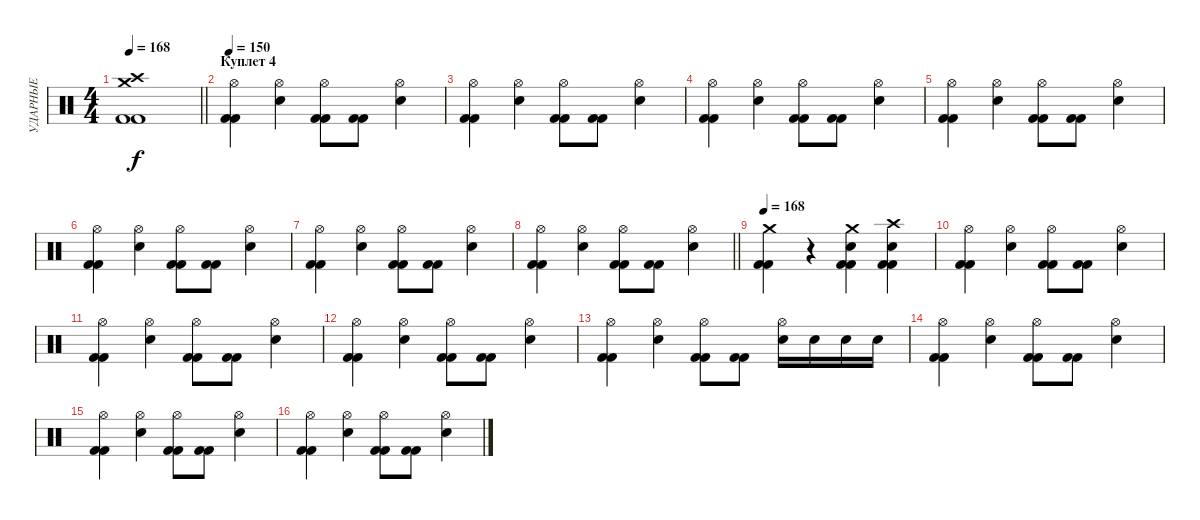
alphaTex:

\track ("УДАРНЫЕ" "УДАРНЫЕ") {instrument percussion}
\staff {score}
\articulation defaults
\ts (4 4)
\tempo 168
\clef neutral
\barLineRight lightlight
\ks c
("Crash medium (hit)" "Crash high (hit)" "Kick (hit) 2" "Kick (hit) 2").1{dy f} |
\section ("" "Куплет 4")
\tempo 150
("Hi-Hat (open)" "Kick (hit) 2" "Kick (hit) 2").4 ("Hi-Hat (open)" "Snare (hit) 2").4 ("Hi-Hat (open)" "Kick (hit) 2" "Kick (hit) 2").8 ("Kick (hit) 2" "Kick (hit) 2").8 ("Hi-Hat (open)" "Snare (hit) 2").4 |
("Hi-Hat (open)" "Kick (hit) 2" "Kick (hit) 2").4 ("Hi-Hat (open)" "Snare (hit) 2").4 ("Hi-Hat (open)" "Kick (hit) 2" "Kick (hit) 2").8 ("Kick (hit) 2" "Kick (hit) 2").8 ("Hi-Hat (open)" "Snare (hit) 2").4 |
("Hi-Hat (open)" "Kick (hit) 2" "Kick (hit) 2").4 ("Hi-Hat (open)" "Snare (hit) 2").4 ("Hi-Hat (open)" "Kick (hit) 2" "Kick (hit) 2").8 ("Kick (hit) 2" "Kick (hit) 2").8 ("Hi-Hat (open)" "Snare (hit) 2").4 |
("Hi-Hat (open)" "Kick (hit) 2" "Kick (hit) 2").4 ("Hi-Hat (open)" "Snare (hit) 2").4 ("Hi-Hat (open)" "Kick (hit) 2" "Kick (hit) 2").8 ("Kick (hit) 2" "Kick (hit) 2").8 ("Hi-Hat (open)" "Snare (hit) 2").4 |
("Hi-Hat (open)" "Kick (hit) 2" "Kick (hit) 2").4 ("Hi-Hat (open)" "Snare (hit) 2").4 ("Hi-Hat (open)" "Kick (hit) 2" "Kick (hit) 2").8 ("Kick (hit) 2" "Kick (hit) 2").8 ("Hi-Hat (open)" "Snare (hit) 2").4 |
("Hi-Hat (open)" "Kick (hit) 2" "Kick (hit) 2").4 ("Hi-Hat (open)" "Snare (hit) 2").4 ("Hi-Hat (open)" "Kick (hit) 2" "Kick (hit) 2").8 ("Kick (hit) 2" "Kick (hit) 2").8 ("Hi-Hat (open)" "Snare (hit) 2").4 |
\barLineRight lightlight
("Hi-Hat (open)" "Kick (hit) 2" "Kick (hit) 2").4 ("Hi-Hat (open)" "Snare (hit) 2").4 ("Hi-Hat (open)" "Kick (hit) 2" "Kick (hit) 2").8 ("Kick (hit) 2" "Kick (hit) 2").8 ("Hi-Hat (open)" "Snare (hit) 2").4 |
\section ("" "")
\tempo 168
("Crash medium (hit)" "Kick (hit) 2" "Kick (hit) 2").4 r.4 ("Crash medium (hit)" "Snare (hit) 2" "Kick (hit) 2" "Kick (hit) 2").4 ("Crash high (hit)" "Snare (hit) 2" "Kick (hit) 2" "Kick (hit) 2").4 |
("Hi-Hat (open)" "Kick (hit) 2" "Kick (hit) 2").4 ("Hi-Hat (open)" "Snare (hit) 2").4 ("Hi-Hat (open)" "Kick (hit) 2" "Kick (hit) 2").8 ("Kick (hit) 2" "Kick (hit) 2").8 ("Hi-Hat (open)" "Snare (hit) 2").4 |
("Hi-Hat (open)" "Kick (hit) 2" "Kick (hit) 2").4 ("Hi-Hat (open)" "Snare (hit) 2").4 ("Hi-Hat (open)" "Kick (hit) 2" "Kick (hit) 2").8 ("Kick (hit) 2" "Kick (hit) 2").8 ("Hi-Hat (open)" "Snare (hit) 2").4 |
("Hi-Hat (open)" "Kick (hit) 2" "Kick (hit) 2").4 ("Hi-Hat (open)" "Snare (hit) 2").4 ("Hi-Hat (open)" "Kick (hit) 2" "Kick (hit) 2").8 ("Kick (hit) 2" "Kick (hit) 2").8 ("Hi-Hat (open)" "Snare (hit) 2").4 |
("Hi-Hat (open)" "Kick (hit) 2" "Kick (hit) 2").4 ("Hi-Hat (open)" "Snare (hit) 2").4 ("Hi-Hat (open)" "Kick (hit) 2" "Kick (hit) 2").8 ("Kick (hit) 2" "Kick (hit) 2").8 ("Hi-Hat (open)" "Snare (hit) 2").16 "Snare (hit) 2".16 "Snare (hit) 2".16 "Snare (hit) 2".16 |
("Hi-Hat (open)" "Kick (hit) 2" "Kick (hit) 2").4 ("Hi-Hat (open)" "Snare (hit) 2").4 ("Hi-Hat (open)" "Kick (hit) 2" "Kick (hit) 2").8 ("Kick (hit) 2" "Kick (hit) 2").8 ("Hi-Hat (open)" "Snare (hit) 2").4 |
("Hi-Hat (open)" "Kick (hit) 2" "Kick (hit) 2").4 ("Hi-Hat (open)" "Snare (hit) 2").4 ("Hi-Hat (open)" "Kick (hit) 2" "Kick (hit) 2").8 ("Kick (hit) 2" "Kick (hit) 2").8 ("Hi-Hat (open)" "Snare (hit) 2").4 |
("Hi-Hat (open)" "Kick (hit) 2" "Kick (hit) 2").4 ("Hi-Hat (open)" "Snare (hit) 2").4 ("Hi-Hat (open)" "Kick (hit) 2" "Kick (hit) 2").8 ("Kick (hit) 2" "Kick (hit) 2").8 ("Hi-Hat (open)" "Snare (hit) 2").4
